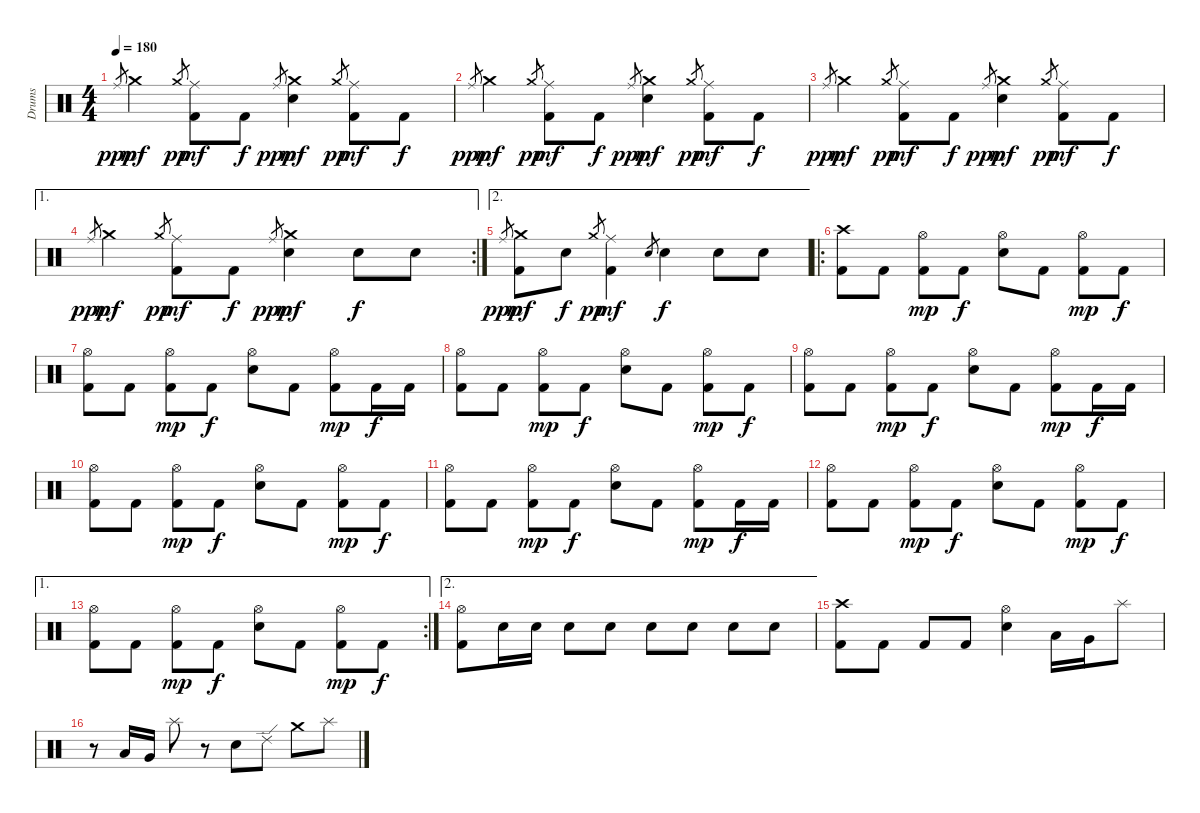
\track ("Drums" "Drums") {instrument percussion}
\staff {score}
\articulation defaults
\ts (4 4)
\tempo 180
\clef neutral
\ks c "Ride (middle)".8{gr dy ppp} "Crash medium (hit)".4{dy mf} "Crash medium (hit)".8{gr dy pp}
("Ride (middle)" "Kick (hit) 2").8{dy mf} "Kick (hit) 2".8{dy f} "Ride (middle)".8{gr dy ppp} ("Crash medium (hit)" "Snare (hit) 2").4{dy mf} "Crash medium (hit)".8{gr dy pp} ("Ride (middle)" "Kick (hit) 2").8{dy mf} "Kick (hit) 2".8{dy f} |
"Ride (middle)".8{gr dy ppp} "Crash medium (hit)".4{dy mf} "Crash medium (hit)".8{gr dy pp} ("Ride (middle)" "Kick (hit) 2").8{dy mf} "Kick (hit) 2".8{dy f} "Ride (middle)".8{gr dy ppp} ("Crash medium (hit)" "Snare (hit) 2").4{dy mf} "Crash medium (hit)".8{gr dy pp} ("Ride (middle)" "Kick (hit) 2").8{dy mf} "Kick (hit) 2".8{dy f} |
"Ride (middle)".8{gr dy ppp} "Crash medium (hit)".4{dy mf} "Crash medium (hit)".8{gr dy pp} ("Ride (middle)" "Kick (hit) 2").8{dy mf} "Kick (hit) 2".8{dy f} "Ride (middle)".8{gr dy ppp} ("Crash medium (hit)" "Snare (hit) 2").4{dy mf} "Crash medium (hit)".8{gr dy pp} ("Ride (middle)" "Kick (hit) 2").8{dy mf} "Kick (hit) 2".8{dy f} |
\ae 1
\rc 2 "Ride (middle)".8{gr dy ppp} "Crash medium (hit)".4{dy mf} "Crash medium (hit)".8{gr dy pp}
("Ride (middle)" "Kick (hit) 2").8{dy mf} "Kick (hit) 2".8{dy f} "Ride (middle)".8{gr dy ppp} ("Crash medium (hit)" "Snare (hit) 2").4{dy mf} "Snare (hit) 2".8{dy f} "Snare (hit) 2".8 |
\ae 2 "Ride (middle)".8{gr dy ppp}
("Crash medium (hit)" "Kick (hit) 2").8{dy mf} "Snare (hit) 2".8{dy f} "Crash medium (hit)".8{gr dy pp} ("Ride (middle)" "Kick (hit) 2").4{dy mf} "Snare (hit) 2".8{gr} "Snare (hit) 2".4{dy f} "Snare (hit) 2".8 "Snare (hit) 2".8 |
\ro
("Crash high (hit)" "Kick (hit) 2").8 "Kick (hit) 2".8 ("Hi-Hat (open)" "Kick (hit) 2").8{dy mp} "Kick (hit) 2".8{dy f} ("Hi-Hat (open)" "Snare (hit) 2").8 "Kick (hit) 2".8 ("Hi-Hat (open)" "Kick (hit) 2").8{dy mp} "Kick (hit) 2".8{dy f} |
("Hi-Hat (open)" "Kick (hit) 2").8 "Kick (hit) 2".8 ("Hi-Hat (open)" "Kick (hit) 2").8{dy mp} "Kick (hit) 2".8{dy f} ("Hi-Hat (open)" "Snare (hit) 2").8 "Kick (hit) 2".8 ("Hi-Hat (open)" "Kick (hit) 2").8{dy mp} "Kick (hit) 2".16{dy f} "Kick (hit) 2".16 |
("Hi-Hat (open)" "Kick (hit) 2").8 "Kick (hit) 2".8 ("Hi-Hat (open)" "Kick (hit) 2").8{dy mp} "Kick (hit) 2".8{dy f} ("Hi-Hat (open)" "Snare (hit) 2").8 "Kick (hit) 2".8 ("Hi-Hat (open)" "Kick (hit) 2").8{dy mp} "Kick (hit) 2".8{dy f} |
("Hi-Hat (open)" "Kick (hit) 2").8 "Kick (hit) 2".8 ("Hi-Hat (open)" "Kick (hit) 2").8{dy mp} "Kick (hit) 2".8{dy f} ("Hi-Hat (open)" "Snare (hit) 2").8 "Kick (hit) 2".8 ("Hi-Hat (open)" "Kick (hit) 2").8{dy mp} "Kick (hit) 2".16{dy f} "Kick (hit) 2".16 |
("Hi-Hat (open)" "Kick (hit) 2").8 "Kick (hit) 2".8 ("Hi-Hat (open)" "Kick (hit) 2").8{dy mp} "Kick (hit) 2".8{dy f} ("Hi-Hat (open)" "Snare (hit) 2").8 "Kick (hit) 2".8 ("Hi-Hat (open)" "Kick (hit) 2").8{dy mp} "Kick (hit) 2".8{dy f} |
("Hi-Hat (open)" "Kick (hit) 2").8 "Kick (hit) 2".8 ("Hi-Hat (open)" "Kick (hit) 2").8{dy mp} "Kick (hit) 2".8{dy f} ("Hi-Hat (open)" "Snare (hit) 2").8 "Kick (hit) 2".8 ("Hi-Hat (open)" "Kick (hit) 2").8{dy mp} "Kick (hit) 2".16{dy f} "Kick (hit) 2".16 |
("Hi-Hat (open)" "Kick (hit) 2").8 "Kick (hit) 2".8 ("Hi-Hat (open)" "Kick (hit) 2").8{dy mp} "Kick (hit) 2".8{dy f} ("Hi-Hat (open)" "Snare (hit) 2").8 "Kick (hit) 2".8 ("Hi-Hat (open)" "Kick (hit) 2").8{dy mp} "Kick (hit) 2".8{dy f} |
\ae 1
\rc 2
("Hi-Hat (open)" "Kick (hit) 2").8 "Kick (hit) 2".8 ("Hi-Hat (open)" "Kick (hit) 2").8{dy mp} "Kick (hit) 2".8{dy f} ("Hi-Hat (open)" "Snare (hit) 2").8 "Kick (hit) 2".8 ("Hi-Hat (open)" "Kick (hit) 2").8{dy mp} "Kick (hit) 2".8{dy f} |
\ae 2
("Hi-Hat (open)" "Kick (hit) 2").8 "Snare (hit) 2".16 "Snare (hit) 2".16 "Snare (hit) 2".8 "Snare (hit) 2".8 "Snare (hit) 2".8 "Snare (hit) 2".8 "Snare (hit) 2".8 "Snare (hit) 2".8 |
("Crash high (hit)" "Kick (hit) 2").8 "Kick (hit) 2".8 "Kick (hit) 2".8 "Kick (hit) 2".8 ("Hi-Hat (open)" "Snare (hit) 2").4 "Low Tom (hit)".16 "Very Low Tom (hit)".16 "Splash (hit)".8 |
r.8 "Low Tom (hit)".16 "Very Low Tom (hit)".16 "Splash (hit)".8 r.8 "Snare (hit) 2".8 "Ride (edge) 2".8 "Crash medium (hit)".8 "Splash (hit)".8
